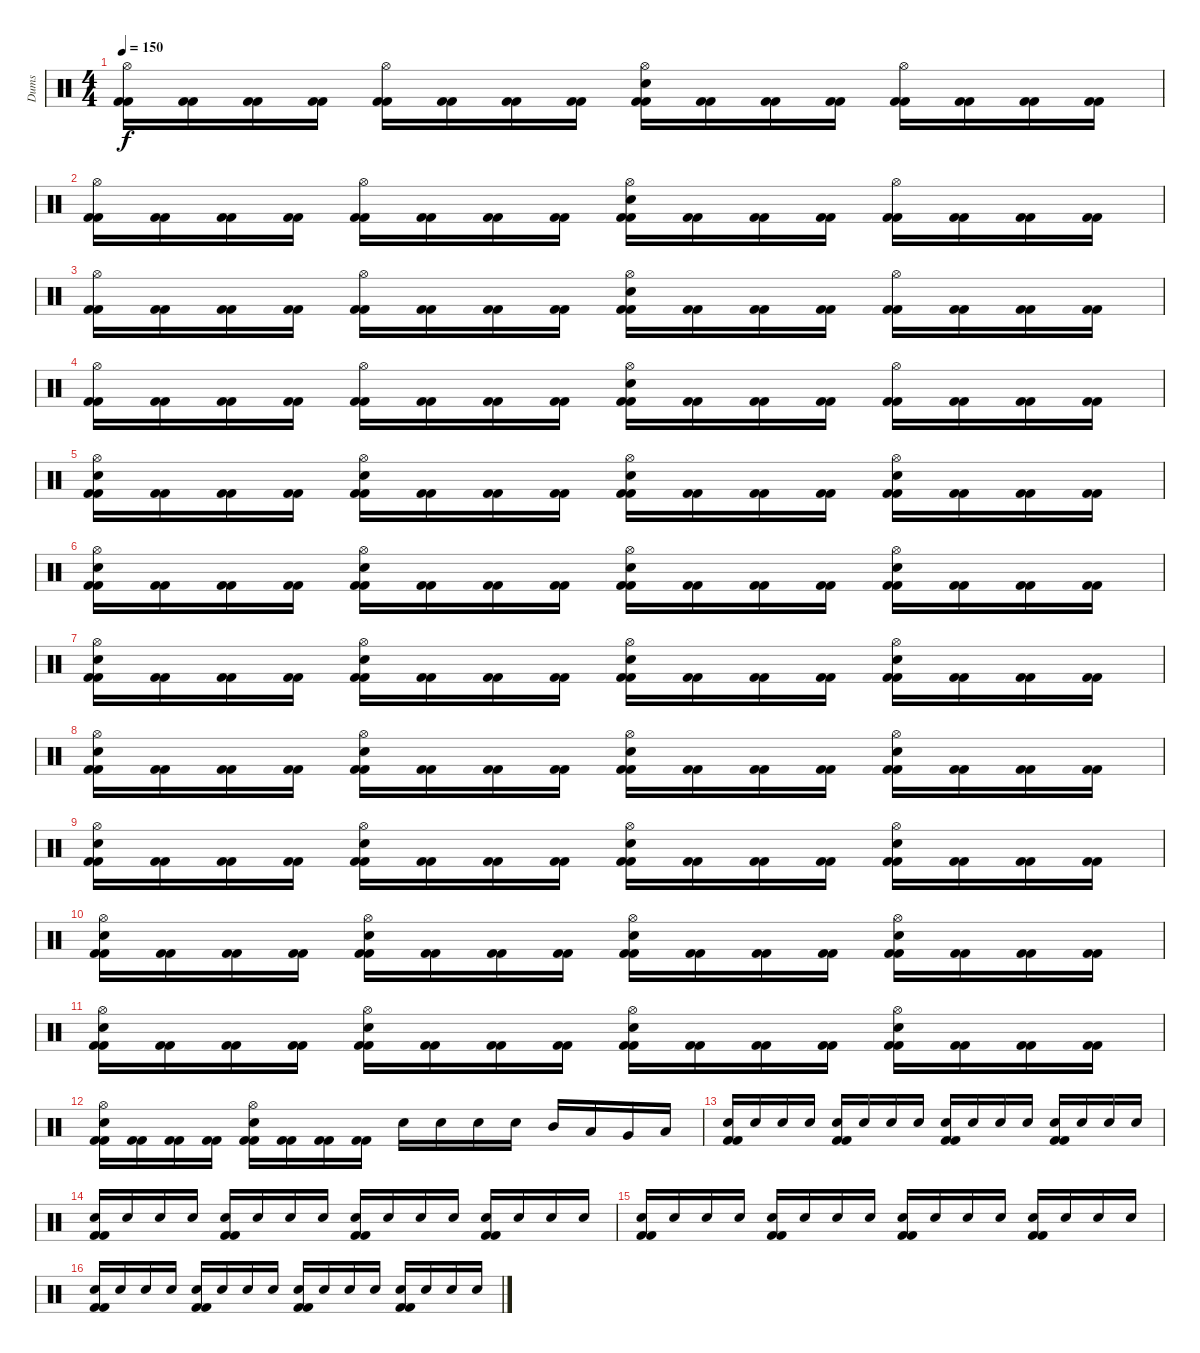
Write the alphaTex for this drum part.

\track ("Dums" "Dums") {instrument percussion}
\staff {score}
\articulation defaults
\ts (4 4)
\tempo 150
\clef neutral
\ks c
("Hi-Hat (open)" "Kick (hit) 2" "Kick (hit) 2").16{dy f} ("Kick (hit) 2" "Kick (hit) 2").16 ("Kick (hit) 2" "Kick (hit) 2").16 ("Kick (hit) 2" "Kick (hit) 2").16 ("Hi-Hat (open)" "Kick (hit) 2" "Kick (hit) 2").16 ("Kick (hit) 2" "Kick (hit) 2").16 ("Kick (hit) 2" "Kick (hit) 2").16 ("Kick (hit) 2" "Kick (hit) 2").16 ("Hi-Hat (open)" "Electric Snare (hit)" "Kick (hit) 2" "Kick (hit) 2").16 ("Kick (hit) 2" "Kick (hit) 2").16 ("Kick (hit) 2" "Kick (hit) 2").16 ("Kick (hit) 2" "Kick (hit) 2").16 ("Hi-Hat (open)" "Kick (hit) 2" "Kick (hit) 2").16 ("Kick (hit) 2" "Kick (hit) 2").16 ("Kick (hit) 2" "Kick (hit) 2").16 ("Kick (hit) 2" "Kick (hit) 2").16 |
("Hi-Hat (open)" "Kick (hit) 2" "Kick (hit) 2").16 ("Kick (hit) 2" "Kick (hit) 2").16 ("Kick (hit) 2" "Kick (hit) 2").16 ("Kick (hit) 2" "Kick (hit) 2").16 ("Hi-Hat (open)" "Kick (hit) 2" "Kick (hit) 2").16 ("Kick (hit) 2" "Kick (hit) 2").16 ("Kick (hit) 2" "Kick (hit) 2").16 ("Kick (hit) 2" "Kick (hit) 2").16 ("Hi-Hat (open)" "Electric Snare (hit)" "Kick (hit) 2" "Kick (hit) 2").16 ("Kick (hit) 2" "Kick (hit) 2").16 ("Kick (hit) 2" "Kick (hit) 2").16 ("Kick (hit) 2" "Kick (hit) 2").16 ("Hi-Hat (open)" "Kick (hit) 2" "Kick (hit) 2").16 ("Kick (hit) 2" "Kick (hit) 2").16 ("Kick (hit) 2" "Kick (hit) 2").16 ("Kick (hit) 2" "Kick (hit) 2").16 |
("Hi-Hat (open)" "Kick (hit) 2" "Kick (hit) 2").16 ("Kick (hit) 2" "Kick (hit) 2").16 ("Kick (hit) 2" "Kick (hit) 2").16 ("Kick (hit) 2" "Kick (hit) 2").16 ("Hi-Hat (open)" "Kick (hit) 2" "Kick (hit) 2").16 ("Kick (hit) 2" "Kick (hit) 2").16 ("Kick (hit) 2" "Kick (hit) 2").16 ("Kick (hit) 2" "Kick (hit) 2").16 ("Hi-Hat (open)" "Electric Snare (hit)" "Kick (hit) 2" "Kick (hit) 2").16 ("Kick (hit) 2" "Kick (hit) 2").16 ("Kick (hit) 2" "Kick (hit) 2").16 ("Kick (hit) 2" "Kick (hit) 2").16 ("Hi-Hat (open)" "Kick (hit) 2" "Kick (hit) 2").16 ("Kick (hit) 2" "Kick (hit) 2").16 ("Kick (hit) 2" "Kick (hit) 2").16 ("Kick (hit) 2" "Kick (hit) 2").16 |
("Hi-Hat (open)" "Kick (hit) 2" "Kick (hit) 2").16 ("Kick (hit) 2" "Kick (hit) 2").16 ("Kick (hit) 2" "Kick (hit) 2").16 ("Kick (hit) 2" "Kick (hit) 2").16 ("Hi-Hat (open)" "Kick (hit) 2" "Kick (hit) 2").16 ("Kick (hit) 2" "Kick (hit) 2").16 ("Kick (hit) 2" "Kick (hit) 2").16 ("Kick (hit) 2" "Kick (hit) 2").16 ("Hi-Hat (open)" "Electric Snare (hit)" "Kick (hit) 2" "Kick (hit) 2").16 ("Kick (hit) 2" "Kick (hit) 2").16 ("Kick (hit) 2" "Kick (hit) 2").16 ("Kick (hit) 2" "Kick (hit) 2").16 ("Hi-Hat (open)" "Kick (hit) 2" "Kick (hit) 2").16 ("Kick (hit) 2" "Kick (hit) 2").16 ("Kick (hit) 2" "Kick (hit) 2").16 ("Kick (hit) 2" "Kick (hit) 2").16 |
("Hi-Hat (open)" "Electric Snare (hit)" "Kick (hit) 2" "Kick (hit) 2").16 ("Kick (hit) 2" "Kick (hit) 2").16 ("Kick (hit) 2" "Kick (hit) 2").16 ("Kick (hit) 2" "Kick (hit) 2").16 ("Hi-Hat (open)" "Electric Snare (hit)" "Kick (hit) 2" "Kick (hit) 2").16 ("Kick (hit) 2" "Kick (hit) 2").16 ("Kick (hit) 2" "Kick (hit) 2").16 ("Kick (hit) 2" "Kick (hit) 2").16 ("Hi-Hat (open)" "Electric Snare (hit)" "Kick (hit) 2" "Kick (hit) 2").16 ("Kick (hit) 2" "Kick (hit) 2").16 ("Kick (hit) 2" "Kick (hit) 2").16 ("Kick (hit) 2" "Kick (hit) 2").16 ("Hi-Hat (open)" "Electric Snare (hit)" "Kick (hit) 2" "Kick (hit) 2").16 ("Kick (hit) 2" "Kick (hit) 2").16 ("Kick (hit) 2" "Kick (hit) 2").16 ("Kick (hit) 2" "Kick (hit) 2").16 |
("Hi-Hat (open)" "Electric Snare (hit)" "Kick (hit) 2" "Kick (hit) 2").16 ("Kick (hit) 2" "Kick (hit) 2").16 ("Kick (hit) 2" "Kick (hit) 2").16 ("Kick (hit) 2" "Kick (hit) 2").16 ("Hi-Hat (open)" "Electric Snare (hit)" "Kick (hit) 2" "Kick (hit) 2").16 ("Kick (hit) 2" "Kick (hit) 2").16 ("Kick (hit) 2" "Kick (hit) 2").16 ("Kick (hit) 2" "Kick (hit) 2").16 ("Hi-Hat (open)" "Electric Snare (hit)" "Kick (hit) 2" "Kick (hit) 2").16 ("Kick (hit) 2" "Kick (hit) 2").16 ("Kick (hit) 2" "Kick (hit) 2").16 ("Kick (hit) 2" "Kick (hit) 2").16 ("Hi-Hat (open)" "Electric Snare (hit)" "Kick (hit) 2" "Kick (hit) 2").16 ("Kick (hit) 2" "Kick (hit) 2").16 ("Kick (hit) 2" "Kick (hit) 2").16 ("Kick (hit) 2" "Kick (hit) 2").16 |
("Hi-Hat (open)" "Electric Snare (hit)" "Kick (hit) 2" "Kick (hit) 2").16 ("Kick (hit) 2" "Kick (hit) 2").16 ("Kick (hit) 2" "Kick (hit) 2").16 ("Kick (hit) 2" "Kick (hit) 2").16 ("Hi-Hat (open)" "Electric Snare (hit)" "Kick (hit) 2" "Kick (hit) 2").16 ("Kick (hit) 2" "Kick (hit) 2").16 ("Kick (hit) 2" "Kick (hit) 2").16 ("Kick (hit) 2" "Kick (hit) 2").16 ("Hi-Hat (open)" "Electric Snare (hit)" "Kick (hit) 2" "Kick (hit) 2").16 ("Kick (hit) 2" "Kick (hit) 2").16 ("Kick (hit) 2" "Kick (hit) 2").16 ("Kick (hit) 2" "Kick (hit) 2").16 ("Hi-Hat (open)" "Electric Snare (hit)" "Kick (hit) 2" "Kick (hit) 2").16 ("Kick (hit) 2" "Kick (hit) 2").16 ("Kick (hit) 2" "Kick (hit) 2").16 ("Kick (hit) 2" "Kick (hit) 2").16 |
("Hi-Hat (open)" "Electric Snare (hit)" "Kick (hit) 2" "Kick (hit) 2").16 ("Kick (hit) 2" "Kick (hit) 2").16 ("Kick (hit) 2" "Kick (hit) 2").16 ("Kick (hit) 2" "Kick (hit) 2").16 ("Hi-Hat (open)" "Electric Snare (hit)" "Kick (hit) 2" "Kick (hit) 2").16 ("Kick (hit) 2" "Kick (hit) 2").16 ("Kick (hit) 2" "Kick (hit) 2").16 ("Kick (hit) 2" "Kick (hit) 2").16 ("Hi-Hat (open)" "Electric Snare (hit)" "Kick (hit) 2" "Kick (hit) 2").16 ("Kick (hit) 2" "Kick (hit) 2").16 ("Kick (hit) 2" "Kick (hit) 2").16 ("Kick (hit) 2" "Kick (hit) 2").16 ("Hi-Hat (open)" "Electric Snare (hit)" "Kick (hit) 2" "Kick (hit) 2").16 ("Kick (hit) 2" "Kick (hit) 2").16 ("Kick (hit) 2" "Kick (hit) 2").16 ("Kick (hit) 2" "Kick (hit) 2").16 |
("Hi-Hat (open)" "Electric Snare (hit)" "Kick (hit) 2" "Kick (hit) 2").16 ("Kick (hit) 2" "Kick (hit) 2").16 ("Kick (hit) 2" "Kick (hit) 2").16 ("Kick (hit) 2" "Kick (hit) 2").16 ("Hi-Hat (open)" "Electric Snare (hit)" "Kick (hit) 2" "Kick (hit) 2").16 ("Kick (hit) 2" "Kick (hit) 2").16 ("Kick (hit) 2" "Kick (hit) 2").16 ("Kick (hit) 2" "Kick (hit) 2").16 ("Hi-Hat (open)" "Electric Snare (hit)" "Kick (hit) 2" "Kick (hit) 2").16 ("Kick (hit) 2" "Kick (hit) 2").16 ("Kick (hit) 2" "Kick (hit) 2").16 ("Kick (hit) 2" "Kick (hit) 2").16 ("Hi-Hat (open)" "Electric Snare (hit)" "Kick (hit) 2" "Kick (hit) 2").16 ("Kick (hit) 2" "Kick (hit) 2").16 ("Kick (hit) 2" "Kick (hit) 2").16 ("Kick (hit) 2" "Kick (hit) 2").16 |
("Hi-Hat (open)" "Electric Snare (hit)" "Kick (hit) 2" "Kick (hit) 2").16 ("Kick (hit) 2" "Kick (hit) 2").16 ("Kick (hit) 2" "Kick (hit) 2").16 ("Kick (hit) 2" "Kick (hit) 2").16 ("Hi-Hat (open)" "Electric Snare (hit)" "Kick (hit) 2" "Kick (hit) 2").16 ("Kick (hit) 2" "Kick (hit) 2").16 ("Kick (hit) 2" "Kick (hit) 2").16 ("Kick (hit) 2" "Kick (hit) 2").16 ("Hi-Hat (open)" "Electric Snare (hit)" "Kick (hit) 2" "Kick (hit) 2").16 ("Kick (hit) 2" "Kick (hit) 2").16 ("Kick (hit) 2" "Kick (hit) 2").16 ("Kick (hit) 2" "Kick (hit) 2").16 ("Hi-Hat (open)" "Electric Snare (hit)" "Kick (hit) 2" "Kick (hit) 2").16 ("Kick (hit) 2" "Kick (hit) 2").16 ("Kick (hit) 2" "Kick (hit) 2").16 ("Kick (hit) 2" "Kick (hit) 2").16 |
("Hi-Hat (open)" "Electric Snare (hit)" "Kick (hit) 2" "Kick (hit) 2").16 ("Kick (hit) 2" "Kick (hit) 2").16 ("Kick (hit) 2" "Kick (hit) 2").16 ("Kick (hit) 2" "Kick (hit) 2").16 ("Hi-Hat (open)" "Electric Snare (hit)" "Kick (hit) 2" "Kick (hit) 2").16 ("Kick (hit) 2" "Kick (hit) 2").16 ("Kick (hit) 2" "Kick (hit) 2").16 ("Kick (hit) 2" "Kick (hit) 2").16 ("Hi-Hat (open)" "Electric Snare (hit)" "Kick (hit) 2" "Kick (hit) 2").16 ("Kick (hit) 2" "Kick (hit) 2").16 ("Kick (hit) 2" "Kick (hit) 2").16 ("Kick (hit) 2" "Kick (hit) 2").16 ("Hi-Hat (open)" "Electric Snare (hit)" "Kick (hit) 2" "Kick (hit) 2").16 ("Kick (hit) 2" "Kick (hit) 2").16 ("Kick (hit) 2" "Kick (hit) 2").16 ("Kick (hit) 2" "Kick (hit) 2").16 |
("Hi-Hat (open)" "Electric Snare (hit)" "Kick (hit) 2" "Kick (hit) 2").16 ("Kick (hit) 2" "Kick (hit) 2").16 ("Kick (hit) 2" "Kick (hit) 2").16 ("Kick (hit) 2" "Kick (hit) 2").16 ("Hi-Hat (open)" "Electric Snare (hit)" "Kick (hit) 2" "Kick (hit) 2").16 ("Kick (hit) 2" "Kick (hit) 2").16 ("Kick (hit) 2" "Kick (hit) 2").16 ("Kick (hit) 2" "Kick (hit) 2").16 "Electric Snare (hit)".16 "Electric Snare (hit)".16 "Electric Snare (hit)".16 "Electric Snare (hit)".16 "Mid Tom (hit)".16 "Low Tom (hit)".16 "Very Low Tom (hit)".16 "Low Floor Tom (hit)".16 |
("Electric Snare (hit)" "Kick (hit) 2" "Kick (hit) 2").16 "Electric Snare (hit)".16 "Electric Snare (hit)".16 "Electric Snare (hit)".16 ("Electric Snare (hit)" "Kick (hit) 2" "Kick (hit) 2").16 "Electric Snare (hit)".16 "Electric Snare (hit)".16 "Electric Snare (hit)".16 ("Electric Snare (hit)" "Kick (hit) 2" "Kick (hit) 2").16 "Electric Snare (hit)".16 "Electric Snare (hit)".16 "Electric Snare (hit)".16 ("Electric Snare (hit)" "Kick (hit) 2" "Kick (hit) 2").16 "Electric Snare (hit)".16 "Electric Snare (hit)".16 "Electric Snare (hit)".16 |
("Electric Snare (hit)" "Kick (hit) 2" "Kick (hit) 2").16 "Electric Snare (hit)".16 "Electric Snare (hit)".16 "Electric Snare (hit)".16 ("Electric Snare (hit)" "Kick (hit) 2" "Kick (hit) 2").16 "Electric Snare (hit)".16 "Electric Snare (hit)".16 "Electric Snare (hit)".16 ("Electric Snare (hit)" "Kick (hit) 2" "Kick (hit) 2").16 "Electric Snare (hit)".16 "Electric Snare (hit)".16 "Electric Snare (hit)".16 ("Electric Snare (hit)" "Kick (hit) 2" "Kick (hit) 2").16 "Electric Snare (hit)".16 "Electric Snare (hit)".16 "Electric Snare (hit)".16 |
("Electric Snare (hit)" "Kick (hit) 2" "Kick (hit) 2").16 "Electric Snare (hit)".16 "Electric Snare (hit)".16 "Electric Snare (hit)".16 ("Electric Snare (hit)" "Kick (hit) 2" "Kick (hit) 2").16 "Electric Snare (hit)".16 "Electric Snare (hit)".16 "Electric Snare (hit)".16 ("Electric Snare (hit)" "Kick (hit) 2" "Kick (hit) 2").16 "Electric Snare (hit)".16 "Electric Snare (hit)".16 "Electric Snare (hit)".16 ("Electric Snare (hit)" "Kick (hit) 2" "Kick (hit) 2").16 "Electric Snare (hit)".16 "Electric Snare (hit)".16 "Electric Snare (hit)".16 |
("Electric Snare (hit)" "Kick (hit) 2" "Kick (hit) 2").16 "Electric Snare (hit)".16 "Electric Snare (hit)".16 "Electric Snare (hit)".16 ("Electric Snare (hit)" "Kick (hit) 2" "Kick (hit) 2").16 "Electric Snare (hit)".16 "Electric Snare (hit)".16 "Electric Snare (hit)".16 ("Electric Snare (hit)" "Kick (hit) 2" "Kick (hit) 2").16 "Electric Snare (hit)".16 "Electric Snare (hit)".16 "Electric Snare (hit)".16 ("Electric Snare (hit)" "Kick (hit) 2" "Kick (hit) 2").16 "Electric Snare (hit)".16 "Electric Snare (hit)".16 "Electric Snare (hit)".16
